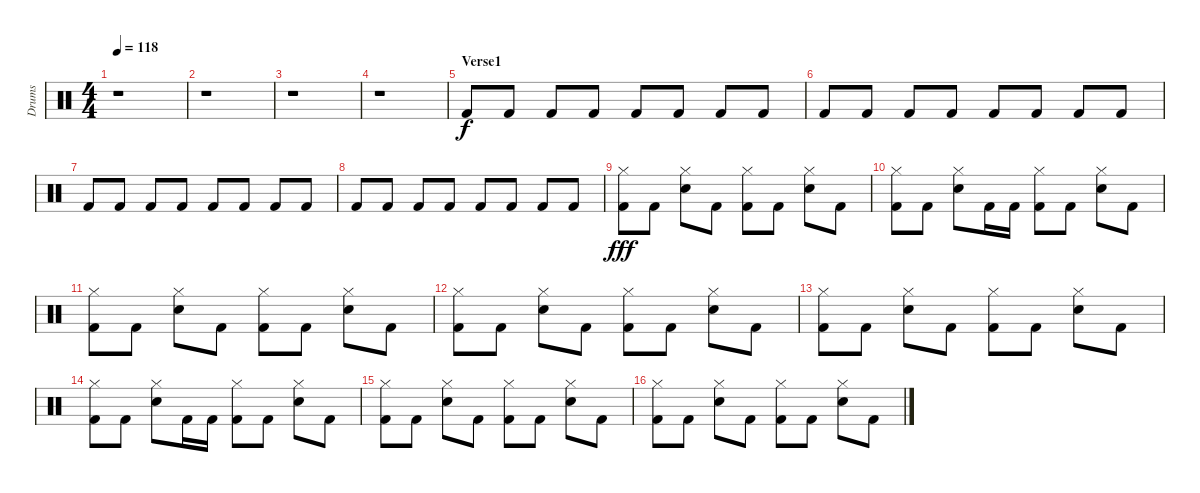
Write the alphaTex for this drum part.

\track ("Drums" "Drums") {instrument percussion}
\staff {score}
\articulation defaults
\ts (4 4)
\tempo 118
\clef neutral
\ks c
r.1{dy f} |
r.1 |
r.1 |
r.1 |
\section ("" "Verse1")
"Kick (hit) 2".8 "Kick (hit) 2".8 "Kick (hit) 2".8 "Kick (hit) 2".8 "Kick (hit) 2".8 "Kick (hit) 2".8 "Kick (hit) 2".8 "Kick (hit) 2".8 |
"Kick (hit) 2".8 "Kick (hit) 2".8 "Kick (hit) 2".8 "Kick (hit) 2".8 "Kick (hit) 2".8 "Kick (hit) 2".8 "Kick (hit) 2".8 "Kick (hit) 2".8 |
"Kick (hit) 2".8 "Kick (hit) 2".8 "Kick (hit) 2".8 "Kick (hit) 2".8 "Kick (hit) 2".8 "Kick (hit) 2".8 "Kick (hit) 2".8 "Kick (hit) 2".8 |
"Kick (hit) 2".8 "Kick (hit) 2".8 "Kick (hit) 2".8 "Kick (hit) 2".8 "Kick (hit) 2".8 "Kick (hit) 2".8 "Kick (hit) 2".8 "Kick (hit) 2".8 |
("Hi-Hat (closed)" "Kick (hit) 2").8{dy fff} "Kick (hit) 2".8 ("Hi-Hat (closed)" "Electric Snare (hit)").8 "Kick (hit) 2".8 ("Hi-Hat (closed)" "Kick (hit) 2").8 "Kick (hit) 2".8 ("Hi-Hat (closed)" "Electric Snare (hit)").8 "Kick (hit) 2".8 |
("Hi-Hat (closed)" "Kick (hit) 2").8 "Kick (hit) 2".8 ("Hi-Hat (closed)" "Electric Snare (hit)").8 "Kick (hit) 2".16 "Kick (hit) 2".16 ("Hi-Hat (closed)" "Kick (hit) 2").8 "Kick (hit) 2".8 ("Hi-Hat (closed)" "Electric Snare (hit)").8 "Kick (hit) 2".8 |
("Hi-Hat (closed)" "Kick (hit) 2").8 "Kick (hit) 2".8 ("Hi-Hat (closed)" "Electric Snare (hit)").8 "Kick (hit) 2".8 ("Hi-Hat (closed)" "Kick (hit) 2").8 "Kick (hit) 2".8 ("Hi-Hat (closed)" "Electric Snare (hit)").8 "Kick (hit) 2".8 |
("Hi-Hat (closed)" "Kick (hit) 2").8 "Kick (hit) 2".8 ("Hi-Hat (closed)" "Electric Snare (hit)").8 "Kick (hit) 2".8 ("Hi-Hat (closed)" "Kick (hit) 2").8 "Kick (hit) 2".8 ("Hi-Hat (closed)" "Electric Snare (hit)").8 "Kick (hit) 2".8 |
("Hi-Hat (closed)" "Kick (hit) 2").8 "Kick (hit) 2".8 ("Hi-Hat (closed)" "Electric Snare (hit)").8 "Kick (hit) 2".8 ("Hi-Hat (closed)" "Kick (hit) 2").8 "Kick (hit) 2".8 ("Hi-Hat (closed)" "Electric Snare (hit)").8 "Kick (hit) 2".8 |
("Hi-Hat (closed)" "Kick (hit) 2").8 "Kick (hit) 2".8 ("Hi-Hat (closed)" "Electric Snare (hit)").8 "Kick (hit) 2".16 "Kick (hit) 2".16 ("Hi-Hat (closed)" "Kick (hit) 2").8 "Kick (hit) 2".8 ("Hi-Hat (closed)" "Electric Snare (hit)").8 "Kick (hit) 2".8 |
("Hi-Hat (closed)" "Kick (hit) 2").8 "Kick (hit) 2".8 ("Hi-Hat (closed)" "Electric Snare (hit)").8 "Kick (hit) 2".8 ("Hi-Hat (closed)" "Kick (hit) 2").8 "Kick (hit) 2".8 ("Hi-Hat (closed)" "Electric Snare (hit)").8 "Kick (hit) 2".8 |
("Hi-Hat (closed)" "Kick (hit) 2").8 "Kick (hit) 2".8 ("Hi-Hat (closed)" "Electric Snare (hit)").8 "Kick (hit) 2".8 ("Hi-Hat (closed)" "Kick (hit) 2").8 "Kick (hit) 2".8 ("Hi-Hat (closed)" "Electric Snare (hit)").8 "Kick (hit) 2".8
